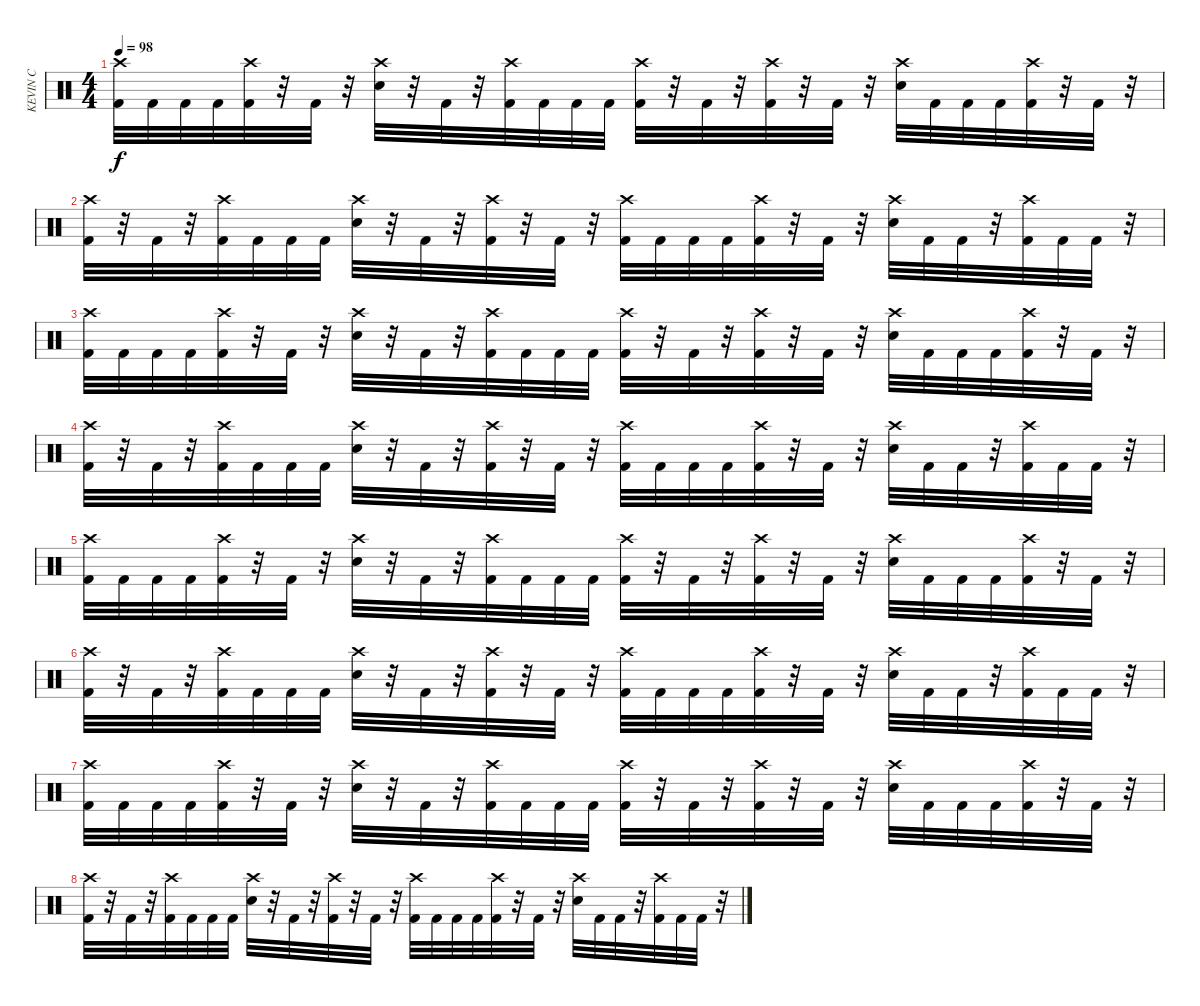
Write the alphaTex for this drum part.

\track ("KEVIN C" "KEVIN C") {instrument percussion}
\staff {score}
\articulation defaults
\ts (4 4)
\tempo 98
\clef neutral
\ks c
("Crash high (hit)" "Kick (hit) 2").32{dy f} "Kick (hit) 2".32 "Kick (hit) 2".32 "Kick (hit) 2".32 ("Crash high (hit)" "Kick (hit) 2").32 r.32 "Kick (hit) 2".32 r.32 ("Crash high (hit)" "Snare (hit) 2").32 r.32 "Kick (hit) 2".32 r.32 ("Crash high (hit)" "Kick (hit) 2").32 "Kick (hit) 2".32 "Kick (hit) 2".32 "Kick (hit) 2".32 ("Crash high (hit)" "Kick (hit) 2").32 r.32 "Kick (hit) 2".32 r.32 ("Crash high (hit)" "Kick (hit) 2").32 r.32 "Kick (hit) 2".32 r.32 ("Crash high (hit)" "Snare (hit) 2").32 "Kick (hit) 2".32 "Kick (hit) 2".32 "Kick (hit) 2".32 ("Crash high (hit)" "Kick (hit) 2").32 r.32 "Kick (hit) 2".32 r.32 |
("Crash high (hit)" "Kick (hit) 2").32 r.32 "Kick (hit) 2".32 r.32 ("Crash high (hit)" "Kick (hit) 2").32 "Kick (hit) 2".32 "Kick (hit) 2".32 "Kick (hit) 2".32 ("Crash high (hit)" "Snare (hit) 2").32 r.32 "Kick (hit) 2".32 r.32 ("Crash high (hit)" "Kick (hit) 2").32 r.32 "Kick (hit) 2".32 r.32 ("Crash high (hit)" "Kick (hit) 2").32 "Kick (hit) 2".32 "Kick (hit) 2".32 "Kick (hit) 2".32 ("Crash high (hit)" "Kick (hit) 2").32 r.32 "Kick (hit) 2".32 r.32 ("Crash high (hit)" "Snare (hit) 2").32 "Kick (hit) 2".32 "Kick (hit) 2".32 r.32 ("Crash high (hit)" "Kick (hit) 2").32 "Kick (hit) 2".32 "Kick (hit) 2".32 r.32 |
("Crash high (hit)" "Kick (hit) 2").32 "Kick (hit) 2".32 "Kick (hit) 2".32 "Kick (hit) 2".32 ("Crash high (hit)" "Kick (hit) 2").32 r.32 "Kick (hit) 2".32 r.32 ("Crash high (hit)" "Snare (hit) 2").32 r.32 "Kick (hit) 2".32 r.32 ("Crash high (hit)" "Kick (hit) 2").32 "Kick (hit) 2".32 "Kick (hit) 2".32 "Kick (hit) 2".32 ("Crash high (hit)" "Kick (hit) 2").32 r.32 "Kick (hit) 2".32 r.32 ("Crash high (hit)" "Kick (hit) 2").32 r.32 "Kick (hit) 2".32 r.32 ("Crash high (hit)" "Snare (hit) 2").32 "Kick (hit) 2".32 "Kick (hit) 2".32 "Kick (hit) 2".32 ("Crash high (hit)" "Kick (hit) 2").32 r.32 "Kick (hit) 2".32 r.32 |
("Crash high (hit)" "Kick (hit) 2").32 r.32 "Kick (hit) 2".32 r.32 ("Crash high (hit)" "Kick (hit) 2").32 "Kick (hit) 2".32 "Kick (hit) 2".32 "Kick (hit) 2".32 ("Crash high (hit)" "Snare (hit) 2").32 r.32 "Kick (hit) 2".32 r.32 ("Crash high (hit)" "Kick (hit) 2").32 r.32 "Kick (hit) 2".32 r.32 ("Crash high (hit)" "Kick (hit) 2").32 "Kick (hit) 2".32 "Kick (hit) 2".32 "Kick (hit) 2".32 ("Crash high (hit)" "Kick (hit) 2").32 r.32 "Kick (hit) 2".32 r.32 ("Crash high (hit)" "Snare (hit) 2").32 "Kick (hit) 2".32 "Kick (hit) 2".32 r.32 ("Crash high (hit)" "Kick (hit) 2").32 "Kick (hit) 2".32 "Kick (hit) 2".32 r.32 |
("Crash high (hit)" "Kick (hit) 2").32 "Kick (hit) 2".32 "Kick (hit) 2".32 "Kick (hit) 2".32 ("Crash high (hit)" "Kick (hit) 2").32 r.32 "Kick (hit) 2".32 r.32 ("Crash high (hit)" "Snare (hit) 2").32 r.32 "Kick (hit) 2".32 r.32 ("Crash high (hit)" "Kick (hit) 2").32 "Kick (hit) 2".32 "Kick (hit) 2".32 "Kick (hit) 2".32 ("Crash high (hit)" "Kick (hit) 2").32 r.32 "Kick (hit) 2".32 r.32 ("Crash high (hit)" "Kick (hit) 2").32 r.32 "Kick (hit) 2".32 r.32 ("Crash high (hit)" "Snare (hit) 2").32 "Kick (hit) 2".32 "Kick (hit) 2".32 "Kick (hit) 2".32 ("Crash high (hit)" "Kick (hit) 2").32 r.32 "Kick (hit) 2".32 r.32 |
("Crash high (hit)" "Kick (hit) 2").32 r.32 "Kick (hit) 2".32 r.32 ("Crash high (hit)" "Kick (hit) 2").32 "Kick (hit) 2".32 "Kick (hit) 2".32 "Kick (hit) 2".32 ("Crash high (hit)" "Snare (hit) 2").32 r.32 "Kick (hit) 2".32 r.32 ("Crash high (hit)" "Kick (hit) 2").32 r.32 "Kick (hit) 2".32 r.32 ("Crash high (hit)" "Kick (hit) 2").32 "Kick (hit) 2".32 "Kick (hit) 2".32 "Kick (hit) 2".32 ("Crash high (hit)" "Kick (hit) 2").32 r.32 "Kick (hit) 2".32 r.32 ("Crash high (hit)" "Snare (hit) 2").32 "Kick (hit) 2".32 "Kick (hit) 2".32 r.32 ("Crash high (hit)" "Kick (hit) 2").32 "Kick (hit) 2".32 "Kick (hit) 2".32 r.32 |
("Crash high (hit)" "Kick (hit) 2").32 "Kick (hit) 2".32 "Kick (hit) 2".32 "Kick (hit) 2".32 ("Crash high (hit)" "Kick (hit) 2").32 r.32 "Kick (hit) 2".32 r.32 ("Crash high (hit)" "Snare (hit) 2").32 r.32 "Kick (hit) 2".32 r.32 ("Crash high (hit)" "Kick (hit) 2").32 "Kick (hit) 2".32 "Kick (hit) 2".32 "Kick (hit) 2".32 ("Crash high (hit)" "Kick (hit) 2").32 r.32 "Kick (hit) 2".32 r.32 ("Crash high (hit)" "Kick (hit) 2").32 r.32 "Kick (hit) 2".32 r.32 ("Crash high (hit)" "Snare (hit) 2").32 "Kick (hit) 2".32 "Kick (hit) 2".32 "Kick (hit) 2".32 ("Crash high (hit)" "Kick (hit) 2").32 r.32 "Kick (hit) 2".32 r.32 |
("Crash high (hit)" "Kick (hit) 2").32 r.32 "Kick (hit) 2".32 r.32 ("Crash high (hit)" "Kick (hit) 2").32 "Kick (hit) 2".32 "Kick (hit) 2".32 "Kick (hit) 2".32 ("Crash high (hit)" "Snare (hit) 2").32 r.32 "Kick (hit) 2".32 r.32 ("Crash high (hit)" "Kick (hit) 2").32 r.32 "Kick (hit) 2".32 r.32 ("Crash high (hit)" "Kick (hit) 2").32 "Kick (hit) 2".32 "Kick (hit) 2".32 "Kick (hit) 2".32 ("Crash high (hit)" "Kick (hit) 2").32 r.32 "Kick (hit) 2".32 r.32 ("Crash high (hit)" "Snare (hit) 2").32 "Kick (hit) 2".32 "Kick (hit) 2".32 r.32 ("Crash high (hit)" "Kick (hit) 2").32 "Kick (hit) 2".32 "Kick (hit) 2".32 r.32
